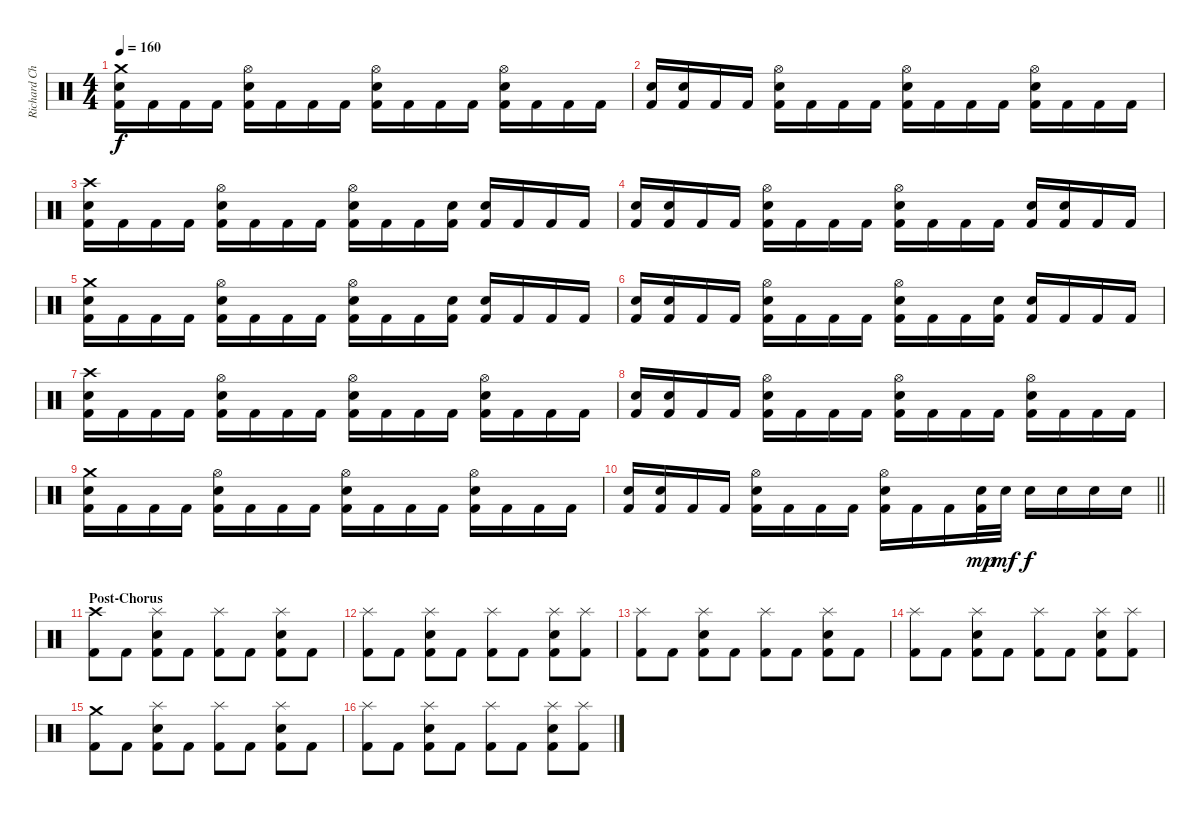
\track ("Richard Christy" "Richard Ch") {instrument percussion}
\staff {score}
\articulation defaults
\ts (4 4)
\tempo 160
\clef neutral
\ks c
("Crash medium (hit)" "Snare (hit) 2" "Kick (hit) 2").16{dy f} "Kick (hit) 2".16 "Kick (hit) 2".16 "Kick (hit) 2".16 ("Hi-Hat (open)" "Snare (hit) 2" "Kick (hit) 2").16 "Kick (hit) 2".16 "Kick (hit) 2".16 "Kick (hit) 2".16 ("Hi-Hat (open)" "Snare (hit) 2" "Kick (hit) 2").16 "Kick (hit) 2".16 "Kick (hit) 2".16 "Kick (hit) 2".16 ("Hi-Hat (open)" "Snare (hit) 2" "Kick (hit) 2").16 "Kick (hit) 2".16 "Kick (hit) 2".16 "Kick (hit) 2".16 |
("Snare (hit) 2" "Kick (hit) 2").16 ("Snare (hit) 2" "Kick (hit) 2").16 "Kick (hit) 2".16 "Kick (hit) 2".16 ("Hi-Hat (open)" "Snare (hit) 2" "Kick (hit) 2").16 "Kick (hit) 2".16 "Kick (hit) 2".16 "Kick (hit) 2".16 ("Hi-Hat (open)" "Snare (hit) 2" "Kick (hit) 2").16 "Kick (hit) 2".16 "Kick (hit) 2".16 "Kick (hit) 2".16 ("Hi-Hat (open)" "Snare (hit) 2" "Kick (hit) 2").16 "Kick (hit) 2".16 "Kick (hit) 2".16 "Kick (hit) 2".16 |
("Crash high (hit)" "Snare (hit) 2" "Kick (hit) 2").16 "Kick (hit) 2".16 "Kick (hit) 2".16 "Kick (hit) 2".16 ("Hi-Hat (open)" "Snare (hit) 2" "Kick (hit) 2").16 "Kick (hit) 2".16 "Kick (hit) 2".16 "Kick (hit) 2".16 ("Hi-Hat (open)" "Snare (hit) 2" "Kick (hit) 2").16 "Kick (hit) 2".16 "Kick (hit) 2".16 ("Snare (hit) 2" "Kick (hit) 2").16 ("Snare (hit) 2" "Kick (hit) 2").16 "Kick (hit) 2".16 "Kick (hit) 2".16 "Kick (hit) 2".16 |
("Snare (hit) 2" "Kick (hit) 2").16 ("Snare (hit) 2" "Kick (hit) 2").16 "Kick (hit) 2".16 "Kick (hit) 2".16 ("Hi-Hat (open)" "Snare (hit) 2" "Kick (hit) 2").16 "Kick (hit) 2".16 "Kick (hit) 2".16 "Kick (hit) 2".16 ("Hi-Hat (open)" "Snare (hit) 2" "Kick (hit) 2").16 "Kick (hit) 2".16 "Kick (hit) 2".16 "Kick (hit) 2".16 ("Snare (hit) 2" "Kick (hit) 2").16 ("Snare (hit) 2" "Kick (hit) 2").16 "Kick (hit) 2".16 "Kick (hit) 2".16 |
("Crash medium (hit)" "Snare (hit) 2" "Kick (hit) 2").16 "Kick (hit) 2".16 "Kick (hit) 2".16 "Kick (hit) 2".16 ("Hi-Hat (open)" "Snare (hit) 2" "Kick (hit) 2").16 "Kick (hit) 2".16 "Kick (hit) 2".16 "Kick (hit) 2".16 ("Hi-Hat (open)" "Snare (hit) 2" "Kick (hit) 2").16 "Kick (hit) 2".16 "Kick (hit) 2".16 ("Snare (hit) 2" "Kick (hit) 2").16 ("Snare (hit) 2" "Kick (hit) 2").16 "Kick (hit) 2".16 "Kick (hit) 2".16 "Kick (hit) 2".16 |
("Snare (hit) 2" "Kick (hit) 2").16 ("Snare (hit) 2" "Kick (hit) 2").16 "Kick (hit) 2".16 "Kick (hit) 2".16 ("Hi-Hat (open)" "Snare (hit) 2" "Kick (hit) 2").16 "Kick (hit) 2".16 "Kick (hit) 2".16 "Kick (hit) 2".16 ("Hi-Hat (open)" "Snare (hit) 2" "Kick (hit) 2").16 "Kick (hit) 2".16 "Kick (hit) 2".16 ("Snare (hit) 2" "Kick (hit) 2").16 ("Snare (hit) 2" "Kick (hit) 2").16 "Kick (hit) 2".16 "Kick (hit) 2".16 "Kick (hit) 2".16 |
("Crash high (hit)" "Snare (hit) 2" "Kick (hit) 2").16 "Kick (hit) 2".16 "Kick (hit) 2".16 "Kick (hit) 2".16 ("Hi-Hat (open)" "Snare (hit) 2" "Kick (hit) 2").16 "Kick (hit) 2".16 "Kick (hit) 2".16 "Kick (hit) 2".16 ("Hi-Hat (open)" "Snare (hit) 2" "Kick (hit) 2").16 "Kick (hit) 2".16 "Kick (hit) 2".16 "Kick (hit) 2".16 ("Hi-Hat (open)" "Snare (hit) 2" "Kick (hit) 2").16 "Kick (hit) 2".16 "Kick (hit) 2".16 "Kick (hit) 2".16 |
("Snare (hit) 2" "Kick (hit) 2").16 ("Snare (hit) 2" "Kick (hit) 2").16 "Kick (hit) 2".16 "Kick (hit) 2".16 ("Hi-Hat (open)" "Snare (hit) 2" "Kick (hit) 2").16 "Kick (hit) 2".16 "Kick (hit) 2".16 "Kick (hit) 2".16 ("Hi-Hat (open)" "Snare (hit) 2" "Kick (hit) 2").16 "Kick (hit) 2".16 "Kick (hit) 2".16 "Kick (hit) 2".16 ("Hi-Hat (open)" "Snare (hit) 2" "Kick (hit) 2").16 "Kick (hit) 2".16 "Kick (hit) 2".16 "Kick (hit) 2".16 |
("Crash medium (hit)" "Snare (hit) 2" "Kick (hit) 2").16 "Kick (hit) 2".16 "Kick (hit) 2".16 "Kick (hit) 2".16 ("Hi-Hat (open)" "Snare (hit) 2" "Kick (hit) 2").16 "Kick (hit) 2".16 "Kick (hit) 2".16 "Kick (hit) 2".16 ("Hi-Hat (open)" "Snare (hit) 2" "Kick (hit) 2").16 "Kick (hit) 2".16 "Kick (hit) 2".16 "Kick (hit) 2".16 ("Hi-Hat (open)" "Snare (hit) 2" "Kick (hit) 2").16 "Kick (hit) 2".16 "Kick (hit) 2".16 "Kick (hit) 2".16 |
\barLineRight lightlight
("Snare (hit) 2" "Kick (hit) 2").16 ("Snare (hit) 2" "Kick (hit) 2").16 "Kick (hit) 2".16 "Kick (hit) 2".16 ("Hi-Hat (open)" "Snare (hit) 2" "Kick (hit) 2").16 "Kick (hit) 2".16 "Kick (hit) 2".16 "Kick (hit) 2".16 ("Hi-Hat (open)" "Snare (hit) 2" "Kick (hit) 2").16 "Kick (hit) 2".16 "Kick (hit) 2".16 ("Snare (hit) 2" "Kick (hit) 2").32{dy mp} "Snare (hit) 2".32{dy mf} "Snare (hit) 2".16{dy f} "Snare (hit) 2".16 "Snare (hit) 2".16 "Snare (hit) 2".16 |
\section ("" "Post-Chorus")
("Crash high (hit)" "Kick (hit) 2").8 "Kick (hit) 2".8 ("Splash (hit)" "Snare (hit) 2" "Kick (hit) 2").8 "Kick (hit) 2".8 ("Splash (hit)" "Kick (hit) 2").8 "Kick (hit) 2".8 ("Splash (hit)" "Snare (hit) 2" "Kick (hit) 2").8 "Kick (hit) 2".8 |
("Splash (hit)" "Kick (hit) 2").8 "Kick (hit) 2".8 ("Splash (hit)" "Snare (hit) 2" "Kick (hit) 2").8 "Kick (hit) 2".8 ("Splash (hit)" "Kick (hit) 2").8 "Kick (hit) 2".8 ("Splash (hit)" "Snare (hit) 2" "Kick (hit) 2").8 ("Splash (hit)" "Kick (hit) 2").8 |
("Splash (hit)" "Kick (hit) 2").8 "Kick (hit) 2".8 ("Splash (hit)" "Snare (hit) 2" "Kick (hit) 2").8 "Kick (hit) 2".8 ("Splash (hit)" "Kick (hit) 2").8 "Kick (hit) 2".8 ("Splash (hit)" "Snare (hit) 2" "Kick (hit) 2").8 "Kick (hit) 2".8 |
("Splash (hit)" "Kick (hit) 2").8 "Kick (hit) 2".8 ("Splash (hit)" "Snare (hit) 2" "Kick (hit) 2").8 "Kick (hit) 2".8 ("Splash (hit)" "Kick (hit) 2").8 "Kick (hit) 2".8 ("Splash (hit)" "Snare (hit) 2" "Kick (hit) 2").8 ("Splash (hit)" "Kick (hit) 2").8 |
("Crash medium (hit)" "Kick (hit) 2").8 "Kick (hit) 2".8 ("Splash (hit)" "Snare (hit) 2" "Kick (hit) 2").8 "Kick (hit) 2".8 ("Splash (hit)" "Kick (hit) 2").8 "Kick (hit) 2".8 ("Splash (hit)" "Snare (hit) 2" "Kick (hit) 2").8 "Kick (hit) 2".8 |
("Splash (hit)" "Kick (hit) 2").8 "Kick (hit) 2".8 ("Splash (hit)" "Snare (hit) 2" "Kick (hit) 2").8 "Kick (hit) 2".8 ("Splash (hit)" "Kick (hit) 2").8 "Kick (hit) 2".8 ("Splash (hit)" "Snare (hit) 2" "Kick (hit) 2").8 ("Splash (hit)" "Kick (hit) 2").8
